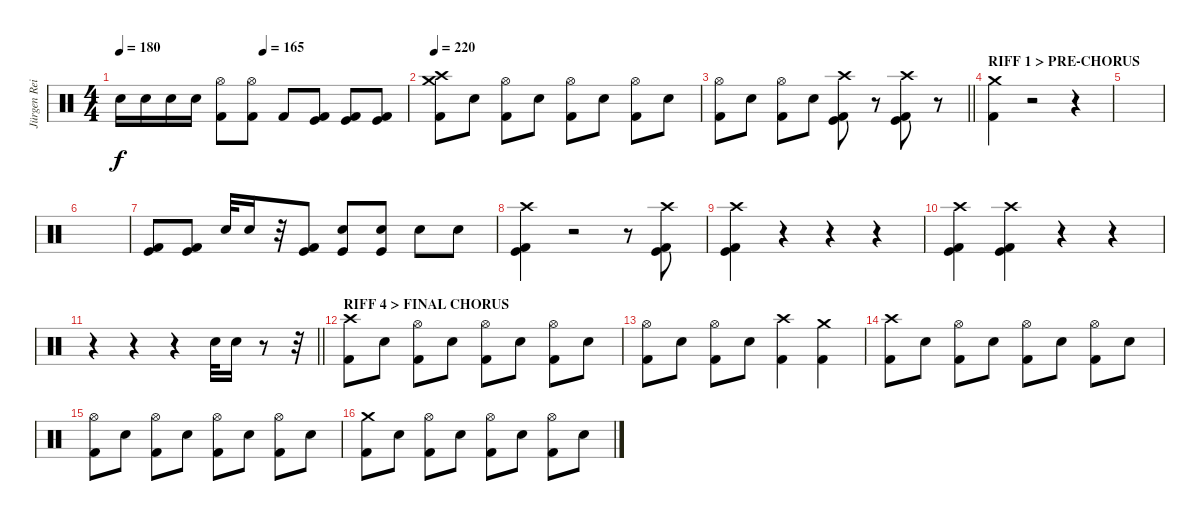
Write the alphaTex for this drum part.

\track ("Jürgen Reil" "Jürgen Rei") {instrument percussion}
\staff {score}
\articulation defaults
\ts (4 4)
\tempo 180
\tempo (165 0.5)
\clef neutral
\ks c "Electric Snare (hit)".16{dy f} "Electric Snare (hit)".16 "Electric Snare (hit)".16 "Electric Snare (hit)".16
("Hi-Hat (open)" "Kick (hit) 2").8 ("Hi-Hat (open)" "Kick (hit) 2").8 "Kick (hit) 2".8 ("Kick (hit)" "Kick (hit) 2").8 ("Kick (hit)" "Kick (hit) 2").8 ("Kick (hit)" "Kick (hit) 2").8 |
\tempo 220
("Crash high (hit)" "Crash medium (hit)" "Kick (hit) 2").8 "Electric Snare (hit)".8 ("Hi-Hat (open)" "Kick (hit) 2").8 "Electric Snare (hit)".8 ("Hi-Hat (open)" "Kick (hit) 2").8 "Electric Snare (hit)".8 ("Hi-Hat (open)" "Kick (hit) 2").8 "Electric Snare (hit)".8 |
\barLineRight lightlight
("Hi-Hat (open)" "Kick (hit) 2").8 "Electric Snare (hit)".8 ("Hi-Hat (open)" "Kick (hit) 2").8 "Electric Snare (hit)".8 ("Crash high (hit)" "Kick (hit)" "Kick (hit) 2").8 r.8 ("Crash high (hit)" "Kick (hit)" "Kick (hit) 2").8 r.8 |
\section ("" "RIFF 1 > PRE-CHORUS")
("Crash medium (hit)" "Kick (hit) 2").4 r.2 r.4 |
|
|
("Kick (hit) 2" "Kick (hit)").8 ("Kick (hit) 2" "Kick (hit)").8 "Electric Snare (hit)".32 "Electric Snare (hit)".16 r.32 ("Kick (hit) 2" "Kick (hit)").8 ("Electric Snare (hit)" "Kick (hit)").8 ("Electric Snare (hit)" "Kick (hit)").8 "Electric Snare (hit)".8 "Electric Snare (hit)".8 |
("Crash high (hit)" "Kick (hit) 2" "Kick (hit)").4 r.2 r.8 ("Crash high (hit)" "Kick (hit)" "Kick (hit) 2").8 |
("Crash high (hit)" "Kick (hit) 2" "Kick (hit)").4 r.4 r.4 r.4 |
("Crash high (hit)" "Kick (hit) 2" "Kick (hit)").4 ("Crash high (hit)" "Kick (hit) 2" "Kick (hit)").4 r.4 r.4 |
\barLineRight lightlight
r.4 r.4 r.4 "Electric Snare (hit)".32 "Electric Snare (hit)".16 r.8 r.32 |
\section ("" "RIFF 4 > FINAL CHORUS")
("Crash high (hit)" "Kick (hit) 2").8 "Electric Snare (hit)".8 ("Hi-Hat (open)" "Kick (hit) 2").8 "Electric Snare (hit)".8 ("Hi-Hat (open)" "Kick (hit) 2").8 "Electric Snare (hit)".8 ("Hi-Hat (open)" "Kick (hit) 2").8 "Electric Snare (hit)".8 |
("Hi-Hat (open)" "Kick (hit) 2").8 "Electric Snare (hit)".8 ("Hi-Hat (open)" "Kick (hit) 2").8 "Electric Snare (hit)".8 ("Crash high (hit)" "Kick (hit) 2").4 ("Crash medium (hit)" "Kick (hit) 2").4 |
("Crash high (hit)" "Kick (hit) 2").8 "Electric Snare (hit)".8 ("Hi-Hat (open)" "Kick (hit) 2").8 "Electric Snare (hit)".8 ("Hi-Hat (open)" "Kick (hit) 2").8 "Electric Snare (hit)".8 ("Hi-Hat (open)" "Kick (hit) 2").8 "Electric Snare (hit)".8 |
("Hi-Hat (open)" "Kick (hit) 2").8 "Electric Snare (hit)".8 ("Hi-Hat (open)" "Kick (hit) 2").8 "Electric Snare (hit)".8 ("Hi-Hat (open)" "Kick (hit) 2").8 "Electric Snare (hit)".8 ("Hi-Hat (open)" "Kick (hit) 2").8 "Electric Snare (hit)".8 |
("Crash medium (hit)" "Kick (hit) 2").8 "Electric Snare (hit)".8 ("Hi-Hat (open)" "Kick (hit) 2").8 "Electric Snare (hit)".8 ("Hi-Hat (open)" "Kick (hit) 2").8 "Electric Snare (hit)".8 ("Hi-Hat (open)" "Kick (hit) 2").8 "Electric Snare (hit)".8
